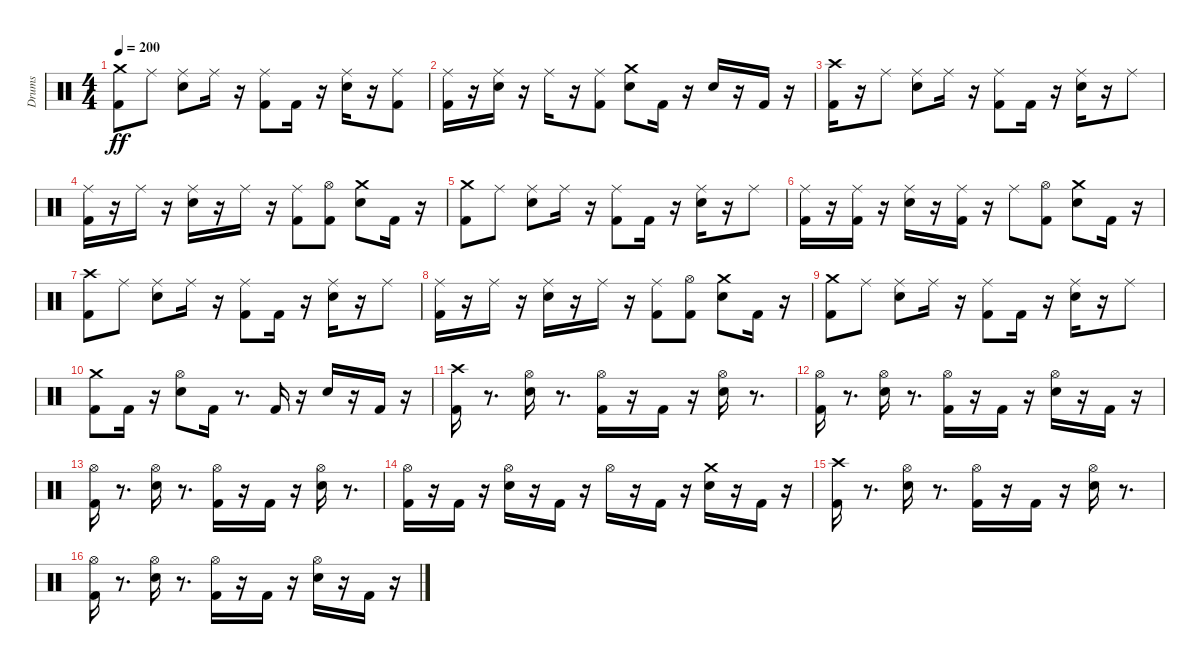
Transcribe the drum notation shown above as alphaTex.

\track ("Drums" "Drums") {instrument percussion}
\staff {score}
\articulation defaults
\ts (4 4)
\tempo 200
\clef neutral
\ks c
("Kick (hit) 2" "Crash medium (hit)").8{dy ff} "Ride (middle)".8 ("Snare (hit) 2" "Ride (middle)").8 "Ride (middle)".16 r.16 ("Kick (hit) 2" "Ride (middle)").8 "Kick (hit) 2".16 r.16 ("Snare (hit) 2" "Ride (middle)").16 r.16 ("Kick (hit) 2" "Ride (middle)").8 |
("Kick (hit) 2" "Ride (middle)").16 r.16 ("Snare (hit) 2" "Ride (middle)").16 r.16 "Ride (middle)".16 r.16 ("Kick (hit) 2" "Ride (middle)").8 ("Snare (hit) 2" "Crash medium (hit)").8 "Kick (hit) 2".16 r.16 "Snare (hit) 2".16 r.16 "Kick (hit) 2".16 r.16 |
("Kick (hit) 2" "Crash high (hit)").16 r.16 "Ride (middle)".8 ("Snare (hit) 2" "Ride (middle)").8 "Ride (middle)".16 r.16 ("Kick (hit) 2" "Ride (middle)").8 "Kick (hit) 2".16 r.16 ("Snare (hit) 2" "Ride (middle)").16 r.16 "Ride (middle)".8 |
("Kick (hit) 2" "Ride (middle)").16 r.16 "Ride (middle)".16 r.16 ("Snare (hit) 2" "Ride (middle)").16 r.16 "Ride (middle)".16 r.16 ("Kick (hit) 2" "Ride (middle)").8 ("Kick (hit) 2" "Hi-Hat (open)").8 ("Snare (hit) 2" "Crash medium (hit)").8 "Kick (hit) 2".16 r.16 |
("Kick (hit) 2" "Crash medium (hit)").8 "Ride (middle)".8 ("Snare (hit) 2" "Ride (middle)").8 "Ride (middle)".16 r.16 ("Kick (hit) 2" "Ride (middle)").8 "Kick (hit) 2".16 r.16 ("Snare (hit) 2" "Ride (middle)").16 r.16 "Ride (middle)".8 |
("Kick (hit) 2" "Ride (middle)").16 r.16 ("Kick (hit) 2" "Ride (middle)").16 r.16 ("Snare (hit) 2" "Ride (middle)").16 r.16 ("Kick (hit) 2" "Ride (middle)").16 r.16 "Ride (middle)".8 ("Kick (hit) 2" "Hi-Hat (open)").8 ("Snare (hit) 2" "Crash medium (hit)").8 "Kick (hit) 2".16 r.16 |
("Kick (hit) 2" "Crash high (hit)").8 "Ride (middle)".8 ("Snare (hit) 2" "Ride (middle)").8 "Ride (middle)".16 r.16 ("Kick (hit) 2" "Ride (middle)").8 "Kick (hit) 2".16 r.16 ("Snare (hit) 2" "Ride (middle)").16 r.16 "Ride (middle)".8 |
("Kick (hit) 2" "Ride (middle)").16 r.16 "Ride (middle)".16 r.16 ("Snare (hit) 2" "Ride (middle)").16 r.16 "Ride (middle)".16 r.16 ("Kick (hit) 2" "Ride (middle)").8 ("Kick (hit) 2" "Hi-Hat (open)").8 ("Snare (hit) 2" "Crash medium (hit)").8 "Kick (hit) 2".16 r.16 |
("Kick (hit) 2" "Crash medium (hit)").8 "Ride (middle)".8 ("Snare (hit) 2" "Ride (middle)").8 "Ride (middle)".16 r.16 ("Kick (hit) 2" "Ride (middle)").8 "Kick (hit) 2".16 r.16 ("Snare (hit) 2" "Ride (middle)").16 r.16 "Ride (middle)".8 |
("Kick (hit) 2" "Crash medium (hit)").8 "Kick (hit) 2".16 r.16 ("Snare (hit) 2" "Hi-Hat (open)").8 "Kick (hit) 2".16 r.8{d} "Kick (hit) 2".16 r.16 "Snare (hit) 2".16 r.16 "Kick (hit) 2".16 r.16 |
("Kick (hit) 2" "Crash high (hit)").16 r.8{d} ("Snare (hit) 2" "Hi-Hat (open)").16 r.8{d} ("Kick (hit) 2" "Hi-Hat (open)").16 r.16 "Kick (hit) 2".16 r.16 ("Snare (hit) 2" "Hi-Hat (open)").16 r.8{d} |
("Kick (hit) 2" "Hi-Hat (open)").16 r.8{d} ("Snare (hit) 2" "Hi-Hat (open)").16 r.8{d} ("Kick (hit) 2" "Hi-Hat (open)").16 r.16 "Kick (hit) 2".16 r.16 ("Snare (hit) 2" "Hi-Hat (open)").16 r.16 "Kick (hit) 2".16 r.16 |
("Kick (hit) 2" "Hi-Hat (open)").16 r.8{d} ("Snare (hit) 2" "Hi-Hat (open)").16 r.8{d} ("Kick (hit) 2" "Hi-Hat (open)").16 r.16 "Kick (hit) 2".16 r.16 ("Snare (hit) 2" "Hi-Hat (open)").16 r.8{d} |
("Kick (hit) 2" "Hi-Hat (open)").16 r.16 "Kick (hit) 2".16 r.16 ("Snare (hit) 2" "Hi-Hat (open)").16 r.16 "Kick (hit) 2".16 r.16 "Hi-Hat (open)".16 r.16 "Kick (hit) 2".16 r.16 ("Snare (hit) 2" "Crash medium (hit)").16 r.16 "Kick (hit) 2".16 r.16 |
("Kick (hit) 2" "Crash high (hit)").16 r.8{d} ("Snare (hit) 2" "Hi-Hat (open)").16 r.8{d} ("Kick (hit) 2" "Hi-Hat (open)").16 r.16 "Kick (hit) 2".16 r.16 ("Snare (hit) 2" "Hi-Hat (open)").16 r.8{d} |
("Kick (hit) 2" "Hi-Hat (open)").16 r.8{d} ("Snare (hit) 2" "Hi-Hat (open)").16 r.8{d} ("Kick (hit) 2" "Hi-Hat (open)").16 r.16 "Kick (hit) 2".16 r.16 ("Snare (hit) 2" "Hi-Hat (open)").16 r.16 "Kick (hit) 2".16 r.16
